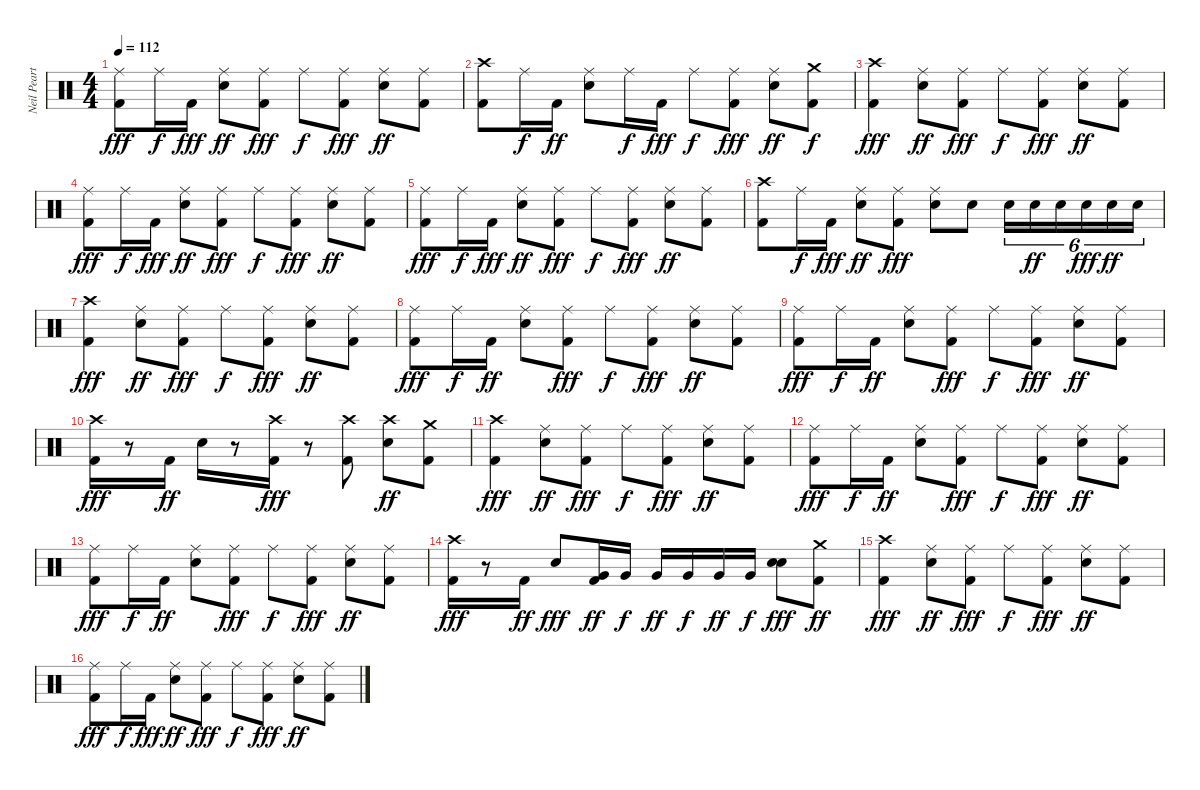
\track ("Neil Peart" "Neil Peart") {instrument percussion}
\staff {score}
\articulation defaults
\ts (4 4)
\tempo 112
\clef neutral
\ks c
("Ride (middle)" "Kick (hit) 2").8{dy fff} "Ride (middle)".16{dy f} "Kick (hit) 2".16{dy fff} ("Ride (middle)" "Snare (hit) 2").8{dy ff} ("Ride (middle)" "Kick (hit) 2").8{dy fff} "Ride (middle)".8{dy f} ("Ride (middle)" "Kick (hit) 2").8{dy fff} ("Ride (middle)" "Snare (hit) 2").8{dy ff} ("Ride (middle)" "Kick (hit) 2").8 |
("Crash high (hit)" "Kick (hit) 2").8 "Ride (middle)".16{dy f} "Kick (hit) 2".16{dy ff} ("Ride (middle)" "Snare (hit) 2").8 "Ride (middle)".16{dy f} "Kick (hit) 2".16{dy fff} "Ride (middle)".8{dy f} ("Ride (middle)" "Kick (hit) 2").8{dy fff} ("Ride (middle)" "Snare (hit) 2").8{dy ff} ("Crash medium (hit)" "Kick (hit) 2").8{dy f} |
("Crash high (hit)" "Kick (hit) 2").4{dy fff} ("Ride (middle)" "Snare (hit) 2").8{dy ff} ("Ride (middle)" "Kick (hit) 2").8{dy fff} "Ride (middle)".8{dy f} ("Ride (middle)" "Kick (hit) 2").8{dy fff} ("Ride (middle)" "Snare (hit) 2").8{dy ff} ("Ride (middle)" "Kick (hit) 2").8 |
("Ride (middle)" "Kick (hit) 2").8{dy fff} "Ride (middle)".16{dy f} "Kick (hit) 2".16{dy fff} ("Ride (middle)" "Snare (hit) 2").8{dy ff} ("Ride (middle)" "Kick (hit) 2").8{dy fff} "Ride (middle)".8{dy f} ("Ride (middle)" "Kick (hit) 2").8{dy fff} ("Ride (middle)" "Snare (hit) 2").8{dy ff} ("Ride (middle)" "Kick (hit) 2").8 |
("Ride (middle)" "Kick (hit) 2").8{dy fff} "Ride (middle)".16{dy f} "Kick (hit) 2".16{dy fff} ("Ride (middle)" "Snare (hit) 2").8{dy ff} ("Ride (middle)" "Kick (hit) 2").8{dy fff} "Ride (middle)".8{dy f} ("Ride (middle)" "Kick (hit) 2").8{dy fff} ("Ride (middle)" "Snare (hit) 2").8{dy ff} ("Ride (middle)" "Kick (hit) 2").8 |
("Crash high (hit)" "Kick (hit) 2").8 "Ride (middle)".16{dy f} "Kick (hit) 2".16{dy fff} ("Ride (middle)" "Snare (hit) 2").8{dy ff} ("Ride (middle)" "Kick (hit) 2").8{dy fff} ("Ride (middle)" "Snare (hit) 2").8 "Snare (hit) 2".8 "Snare (hit) 2".16{tu (6 4)} "Snare (hit) 2".16{tu (6 4) dy ff} "Snare (hit) 2".16{tu (6 4)} "Snare (hit) 2".16{tu (6 4) dy fff} "Snare (hit) 2".16{tu (6 4) dy ff} "Snare (hit) 2".16{tu (6 4)} |
("Crash high (hit)" "Kick (hit) 2").4{dy fff} ("Ride (middle)" "Snare (hit) 2").8{dy ff} ("Ride (middle)" "Kick (hit) 2").8{dy fff} "Ride (middle)".8{dy f} ("Ride (middle)" "Kick (hit) 2").8{dy fff} ("Ride (middle)" "Snare (hit) 2").8{dy ff} ("Ride (middle)" "Kick (hit) 2").8 |
("Ride (middle)" "Kick (hit) 2").8{dy fff} "Ride (middle)".16{dy f} "Kick (hit) 2".16{dy ff} ("Ride (middle)" "Snare (hit) 2").8 ("Ride (middle)" "Kick (hit) 2").8{dy fff} "Ride (middle)".8{dy f} ("Ride (middle)" "Kick (hit) 2").8{dy fff} ("Ride (middle)" "Snare (hit) 2").8{dy ff} ("Ride (middle)" "Kick (hit) 2").8 |
("Ride (middle)" "Kick (hit) 2").8{dy fff} "Ride (middle)".16{dy f} "Kick (hit) 2".16{dy ff} ("Ride (middle)" "Snare (hit) 2").8 ("Ride (middle)" "Kick (hit) 2").8{dy fff} "Ride (middle)".8{dy f} ("Ride (middle)" "Kick (hit) 2").8{dy fff} ("Ride (middle)" "Snare (hit) 2").8{dy ff} ("Ride (middle)" "Kick (hit) 2").8 |
("Crash high (hit)" "Kick (hit) 2").16{dy fff} r.8 "Kick (hit) 2".16{dy ff} "Snare (hit) 2".16 r.8 ("Crash high (hit)" "Kick (hit) 2").16{dy fff} r.8 ("Crash high (hit)" "Kick (hit) 2").8 ("Crash high (hit)" "Snare (hit) 2").8{dy ff} ("Crash medium (hit)" "Kick (hit) 2").8 |
("Crash high (hit)" "Kick (hit) 2").4{dy fff} ("Ride (middle)" "Snare (hit) 2").8{dy ff} ("Ride (middle)" "Kick (hit) 2").8{dy fff} "Ride (middle)".8{dy f} ("Ride (middle)" "Kick (hit) 2").8{dy fff} ("Ride (middle)" "Snare (hit) 2").8{dy ff} ("Ride (middle)" "Kick (hit) 2").8 |
("Ride (middle)" "Kick (hit) 2").8{dy fff} "Ride (middle)".16{dy f} "Kick (hit) 2".16{dy ff} ("Ride (middle)" "Snare (hit) 2").8 ("Ride (middle)" "Kick (hit) 2").8{dy fff} "Ride (middle)".8{dy f} ("Ride (middle)" "Kick (hit) 2").8{dy fff} ("Ride (middle)" "Snare (hit) 2").8{dy ff} ("Ride (middle)" "Kick (hit) 2").8 |
("Ride (middle)" "Kick (hit) 2").8{dy fff} "Ride (middle)".16{dy f} "Kick (hit) 2".16{dy ff} ("Ride (middle)" "Snare (hit) 2").8 ("Ride (middle)" "Kick (hit) 2").8{dy fff} "Ride (middle)".8{dy f} ("Ride (middle)" "Kick (hit) 2").8{dy fff} ("Ride (middle)" "Snare (hit) 2").8{dy ff} ("Ride (middle)" "Kick (hit) 2").8 |
("Crash high (hit)" "Kick (hit) 2").16{dy fff} r.8 "Kick (hit) 2".16{dy ff} "Snare (hit) 2".8{dy fff} ("Kick (hit) 2" "Very Low Tom (hit)").16{dy ff} "Very Low Tom (hit)".16{dy f} "Very Low Tom (hit)".16{dy ff} "Very Low Tom (hit)".16{dy f} "Very Low Tom (hit)".16{dy ff} "Very Low Tom (hit)".16{dy f} ("Snare (hit) 2" "Snare (hit) 2").8{dy fff} ("Crash medium (hit)" "Kick (hit) 2").8{dy ff} |
("Crash high (hit)" "Kick (hit) 2").4{dy fff} ("Ride (middle)" "Snare (hit) 2").8{dy ff} ("Ride (middle)" "Kick (hit) 2").8{dy fff} "Ride (middle)".8{dy f} ("Ride (middle)" "Kick (hit) 2").8{dy fff} ("Ride (middle)" "Snare (hit) 2").8{dy ff} ("Ride (middle)" "Kick (hit) 2").8 |
("Ride (middle)" "Kick (hit) 2").8{dy fff} "Ride (middle)".16{dy f} "Kick (hit) 2".16{dy fff} ("Ride (middle)" "Snare (hit) 2").8{dy ff} ("Ride (middle)" "Kick (hit) 2").8{dy fff} "Ride (middle)".8{dy f} ("Ride (middle)" "Kick (hit) 2").8{dy fff} ("Ride (middle)" "Snare (hit) 2").8{dy ff} ("Ride (middle)" "Kick (hit) 2").8
